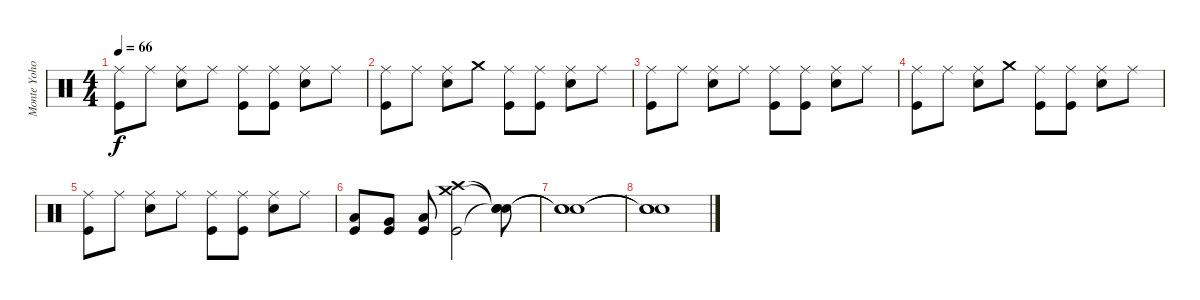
\track ("Monte Yoho Drums" "Monte Yoho") {instrument percussion}
\staff {score}
\articulation defaults
\ts (4 4)
\tempo 66
\clef neutral
\ks c
("Ride (middle)" "Kick (hit)").8{dy f} "Ride (middle)".8 ("Ride (middle)" "Snare (hit) 2").8 "Ride (middle)".8 ("Ride (middle)" "Kick (hit)").8 ("Ride (middle)" "Kick (hit)").8 ("Ride (middle)" "Snare (hit) 2").8 "Ride (middle)".8 |
("Ride (middle)" "Kick (hit)").8 "Ride (middle)".8 ("Ride (middle)" "Snare (hit) 2").8 "Crash medium (hit)".8 ("Ride (middle)" "Kick (hit)").8 ("Ride (middle)" "Kick (hit)").8 ("Ride (middle)" "Snare (hit) 2").8 "Ride (middle)".8 |
("Ride (middle)" "Kick (hit)").8 "Ride (middle)".8 ("Ride (middle)" "Snare (hit) 2").8 "Ride (middle)".8 ("Ride (middle)" "Kick (hit)").8 ("Ride (middle)" "Kick (hit)").8 ("Ride (middle)" "Snare (hit) 2").8 "Ride (middle)".8 |
("Ride (middle)" "Kick (hit)").8 "Ride (middle)".8 ("Ride (middle)" "Snare (hit) 2").8 "Crash medium (hit)".8 ("Ride (middle)" "Kick (hit)").8 ("Ride (middle)" "Kick (hit)").8 ("Ride (middle)" "Snare (hit) 2").8 "Ride (middle)".8 |
("Ride (middle)" "Kick (hit)").8 "Ride (middle)".8 ("Ride (middle)" "Snare (hit) 2").8 "Ride (middle)".8 ("Ride (middle)" "Kick (hit)").8 ("Ride (middle)" "Kick (hit)").8 ("Ride (middle)" "Snare (hit) 2").8 "Ride (middle)".8 |
("Low Tom (hit)" "Kick (hit)").8 ("Very Low Tom (hit)" "Kick (hit)").8 ("Low Floor Tom (hit)" "Kick (hit)").8 ("Crash high (hit)" "Crash medium (hit)" "Kick (hit)").2 ("Snare (hit)"{t} "Snare (hit)"{t} "Snare (hit)"{t}).8 |
("Snare (hit)"{t} "Snare (hit)"{t} "Snare (hit)"{t}).1 |
("Snare (hit)"{t} "Snare (hit)"{t} "Snare (hit)"{t}).1
